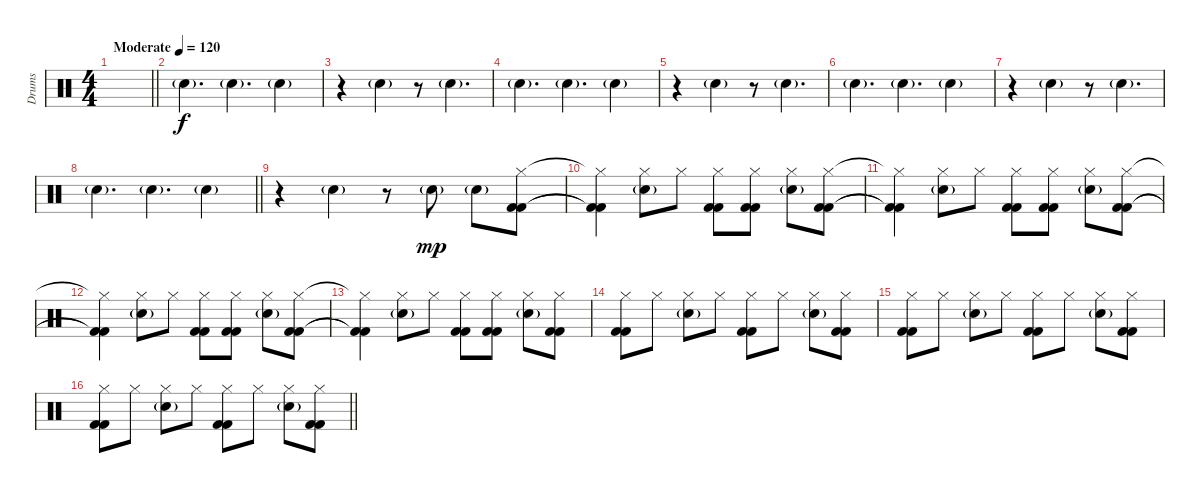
\track ("Drums" "Drums") {instrument percussion}
\staff {score}
\articulation defaults
\ts (4 4)
\tempo (120 "Moderate")
\clef neutral
\barLineRight lightlight
\ks c
|
"Snare (hit) 2"{g}.4{d} "Snare (hit) 2"{g}.4{d} "Snare (hit) 2"{g}.4 |
r.4 "Snare (hit) 2"{g}.4 r.8 "Snare (hit) 2"{g}.4{d} |
"Snare (hit) 2"{g}.4{d} "Snare (hit) 2"{g}.4{d} "Snare (hit) 2"{g}.4 |
r.4 "Snare (hit) 2"{g}.4 r.8 "Snare (hit) 2"{g}.4{d} |
"Snare (hit) 2"{g}.4{d} "Snare (hit) 2"{g}.4{d} "Snare (hit) 2"{g}.4 |
r.4 "Snare (hit) 2"{g}.4 r.8 "Snare (hit) 2"{g}.4{d} |
\barLineRight lightlight "Snare (hit) 2"{g}.4{d} "Snare (hit) 2"{g}.4{d} "Snare (hit) 2"{g}.4
|
r.4 "Snare (hit) 2"{g}.4 r.8 "Snare (hit) 2"{g}.8{dy mp} "Snare (hit) 2"{g}.8 ("Hi-Hat (closed)" "Kick (hit) 2" "Kick (hit) 2").8 |
("Hi-Hat (closed)"{t} "Kick (hit) 2"{t} "Kick (hit) 2"{t}).4 ("Hi-Hat (closed)" "Snare (hit) 2"{g}).8 "Hi-Hat (closed)".8 ("Hi-Hat (closed)" "Kick (hit) 2" "Kick (hit) 2").8 ("Hi-Hat (closed)" "Kick (hit) 2" "Kick (hit) 2").8 ("Hi-Hat (closed)" "Snare (hit) 2"{g}).8 ("Hi-Hat (closed)" "Kick (hit) 2" "Kick (hit) 2").8 |
("Hi-Hat (closed)"{t} "Kick (hit) 2"{t} "Kick (hit) 2"{t}).4 ("Hi-Hat (closed)" "Snare (hit) 2"{g}).8 "Hi-Hat (closed)".8 ("Hi-Hat (closed)" "Kick (hit) 2" "Kick (hit) 2").8 ("Hi-Hat (closed)" "Kick (hit) 2" "Kick (hit) 2").8 ("Hi-Hat (closed)" "Snare (hit) 2"{g}).8 ("Hi-Hat (closed)" "Kick (hit) 2" "Kick (hit) 2").8 |
("Hi-Hat (closed)"{t} "Kick (hit) 2"{t} "Kick (hit) 2"{t}).4 ("Hi-Hat (closed)" "Snare (hit) 2"{g}).8 "Hi-Hat (closed)".8 ("Hi-Hat (closed)" "Kick (hit) 2" "Kick (hit) 2").8 ("Hi-Hat (closed)" "Kick (hit) 2" "Kick (hit) 2").8 ("Hi-Hat (closed)" "Snare (hit) 2"{g}).8 ("Hi-Hat (closed)" "Kick (hit) 2" "Kick (hit) 2").8 |
("Hi-Hat (closed)"{t} "Kick (hit) 2"{t} "Kick (hit) 2"{t}).4 ("Hi-Hat (closed)" "Snare (hit) 2"{g}).8 "Hi-Hat (closed)".8 ("Hi-Hat (closed)" "Kick (hit) 2" "Kick (hit) 2").8 ("Hi-Hat (closed)" "Kick (hit) 2" "Kick (hit) 2").8 ("Hi-Hat (closed)" "Snare (hit) 2"{g}).8 ("Hi-Hat (closed)" "Kick (hit) 2" "Kick (hit) 2").8 |
("Hi-Hat (closed)" "Kick (hit) 2" "Kick (hit) 2").8 "Hi-Hat (closed)".8 ("Hi-Hat (closed)" "Snare (hit) 2"{g}).8 "Hi-Hat (closed)".8 ("Hi-Hat (closed)" "Kick (hit) 2" "Kick (hit) 2").8 "Hi-Hat (closed)".8 ("Hi-Hat (closed)" "Snare (hit) 2"{g}).8 ("Hi-Hat (closed)" "Kick (hit) 2" "Kick (hit) 2").8 |
("Hi-Hat (closed)" "Kick (hit) 2" "Kick (hit) 2").8 "Hi-Hat (closed)".8 ("Hi-Hat (closed)" "Snare (hit) 2"{g}).8 "Hi-Hat (closed)".8 ("Hi-Hat (closed)" "Kick (hit) 2" "Kick (hit) 2").8 "Hi-Hat (closed)".8 ("Hi-Hat (closed)" "Snare (hit) 2"{g}).8 ("Hi-Hat (closed)" "Kick (hit) 2" "Kick (hit) 2").8 |
\barLineRight lightlight
("Hi-Hat (closed)" "Kick (hit) 2" "Kick (hit) 2").8 "Hi-Hat (closed)".8 ("Hi-Hat (closed)" "Snare (hit) 2"{g}).8 "Hi-Hat (closed)".8 ("Hi-Hat (closed)" "Kick (hit) 2" "Kick (hit) 2").8 "Hi-Hat (closed)".8 ("Hi-Hat (closed)" "Snare (hit) 2"{g}).8 ("Hi-Hat (closed)" "Kick (hit) 2" "Kick (hit) 2").8
